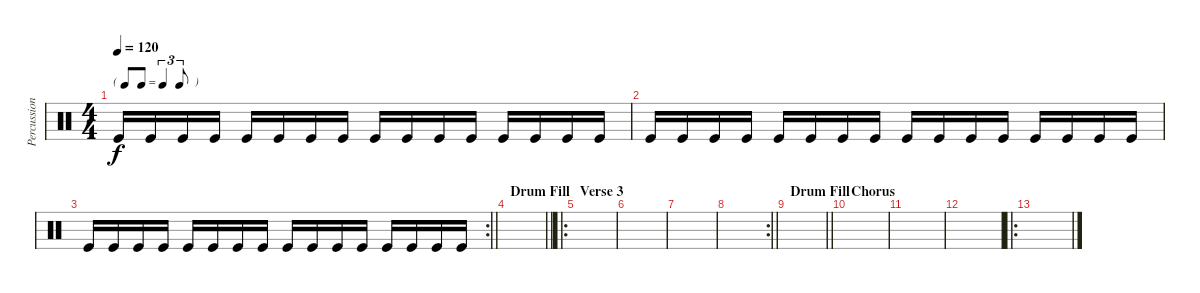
\track ("Percussion" "Percussion") {instrument percussion}
\staff {score}
\articulation defaults
\ts (4 4)
\tf triplet8th
\tempo 120
\clef neutral
\ks c "Kick (hit)".16{dy f} "Kick (hit)".16 "Kick (hit)".16 "Kick (hit)".16 "Kick (hit)".16 "Kick (hit)".16 "Kick (hit)".16 "Kick (hit)".16 "Kick (hit)".16 "Kick (hit)".16 "Kick (hit)".16 "Kick (hit)".16 "Kick (hit)".16 "Kick (hit)".16 "Kick (hit)".16 "Kick (hit)".16
|
"Kick (hit)".16 "Kick (hit)".16 "Kick (hit)".16 "Kick (hit)".16 "Kick (hit)".16 "Kick (hit)".16 "Kick (hit)".16 "Kick (hit)".16 "Kick (hit)".16 "Kick (hit)".16 "Kick (hit)".16 "Kick (hit)".16 "Kick (hit)".16 "Kick (hit)".16 "Kick (hit)".16 "Kick (hit)".16 |
\rc 2
\barLineRight lightlight "Kick (hit)".16 "Kick (hit)".16 "Kick (hit)".16 "Kick (hit)".16 "Kick (hit)".16 "Kick (hit)".16 "Kick (hit)".16 "Kick (hit)".16 "Kick (hit)".16 "Kick (hit)".16 "Kick (hit)".16 "Kick (hit)".16 "Kick (hit)".16 "Kick (hit)".16 "Kick (hit)".16 "Kick (hit)".16
|
\section ("" "Drum Fill")
\barLineRight lightlight
|
\ro
\section ("" "Verse 3")
|
|
|
\rc 2
\barLineRight lightlight
|
\section ("" "Drum Fill")
\barLineRight lightlight
|
\section ("" "Chorus")
|
|
|
\ro
